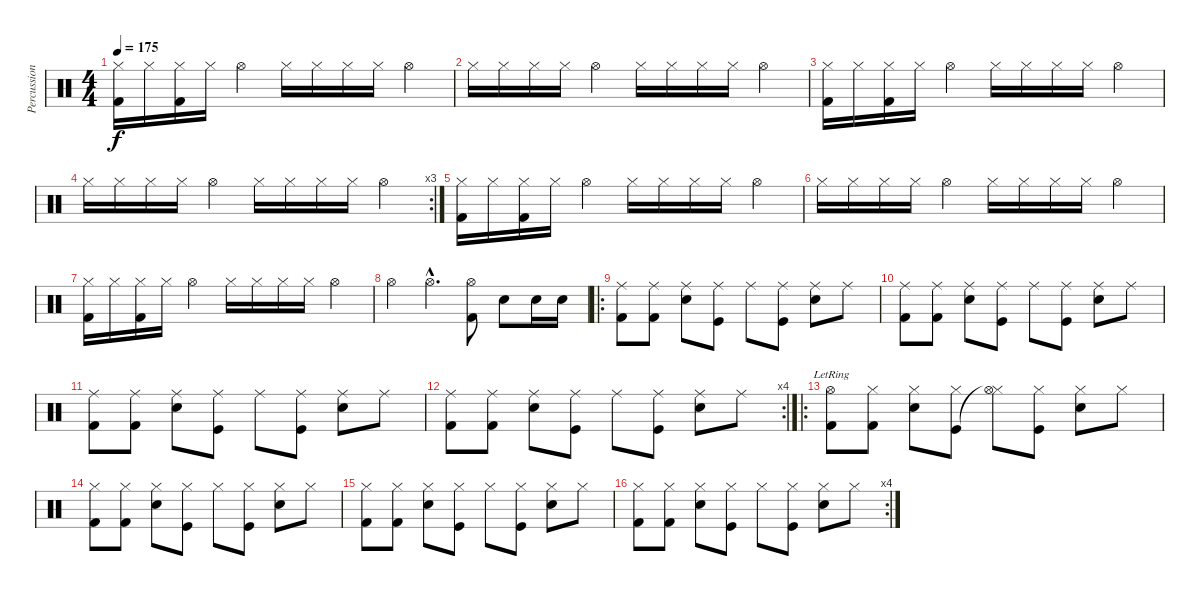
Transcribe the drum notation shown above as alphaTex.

\track ("Percussions" "Percussion") {instrument percussion}
\staff {score}
\articulation defaults
\ts (4 4)
\tempo 175
\clef neutral
\ks c
("Hi-Hat (closed)" "Kick (hit) 2").16{dy f} "Hi-Hat (closed)".16 ("Hi-Hat (closed)" "Kick (hit) 2").16 "Hi-Hat (closed)".16 "Hi-Hat (open)".4 "Hi-Hat (closed)".16 "Hi-Hat (closed)".16 "Hi-Hat (closed)".16 "Hi-Hat (closed)".16 "Hi-Hat (open)".4 |
"Hi-Hat (closed)".16 "Hi-Hat (closed)".16 "Hi-Hat (closed)".16 "Hi-Hat (closed)".16 "Hi-Hat (open)".4 "Hi-Hat (closed)".16 "Hi-Hat (closed)".16 "Hi-Hat (closed)".16 "Hi-Hat (closed)".16 "Hi-Hat (open)".4 |
("Hi-Hat (closed)" "Kick (hit) 2").16 "Hi-Hat (closed)".16 ("Hi-Hat (closed)" "Kick (hit) 2").16 "Hi-Hat (closed)".16 "Hi-Hat (open)".4 "Hi-Hat (closed)".16 "Hi-Hat (closed)".16 "Hi-Hat (closed)".16 "Hi-Hat (closed)".16 "Hi-Hat (open)".4 |
\rc 3 "Hi-Hat (closed)".16 "Hi-Hat (closed)".16 "Hi-Hat (closed)".16 "Hi-Hat (closed)".16 "Hi-Hat (open)".4 "Hi-Hat (closed)".16 "Hi-Hat (closed)".16 "Hi-Hat (closed)".16 "Hi-Hat (closed)".16 "Hi-Hat (open)".4
|
("Hi-Hat (closed)" "Kick (hit) 2").16 "Hi-Hat (closed)".16 ("Hi-Hat (closed)" "Kick (hit) 2").16 "Hi-Hat (closed)".16 "Hi-Hat (open)".4 "Hi-Hat (closed)".16 "Hi-Hat (closed)".16 "Hi-Hat (closed)".16 "Hi-Hat (closed)".16 "Hi-Hat (open)".4 |
"Hi-Hat (closed)".16 "Hi-Hat (closed)".16 "Hi-Hat (closed)".16 "Hi-Hat (closed)".16 "Hi-Hat (open)".4 "Hi-Hat (closed)".16 "Hi-Hat (closed)".16 "Hi-Hat (closed)".16 "Hi-Hat (closed)".16 "Hi-Hat (open)".4 |
("Hi-Hat (closed)" "Kick (hit) 2").16 "Hi-Hat (closed)".16 ("Hi-Hat (closed)" "Kick (hit) 2").16 "Hi-Hat (closed)".16 "Hi-Hat (open)".4 "Hi-Hat (closed)".16 "Hi-Hat (closed)".16 "Hi-Hat (closed)".16 "Hi-Hat (closed)".16 "Hi-Hat (open)".4 |
"Hi-Hat (open)".4 "Hi-Hat (open)"{hac}.4{d} ("Hi-Hat (open)" "Kick (hit) 2").8 "Snare (hit) 2".8 "Snare (hit) 2".16 "Snare (hit) 2".16 |
\ro
("Ride (middle)" "Kick (hit) 2").8 ("Ride (middle)" "Kick (hit) 2").8 ("Ride (middle)" "Snare (hit) 2").8 ("Ride (middle)" "Kick (hit)").8 "Ride (middle)".8 ("Ride (middle)" "Kick (hit)").8 ("Ride (middle)" "Snare (hit) 2").8 "Ride (middle)".8 |
("Ride (middle)" "Kick (hit) 2").8 ("Ride (middle)" "Kick (hit) 2").8 ("Ride (middle)" "Snare (hit) 2").8 ("Ride (middle)" "Kick (hit)").8 "Ride (middle)".8 ("Ride (middle)" "Kick (hit)").8 ("Ride (middle)" "Snare (hit) 2").8 "Ride (middle)".8 |
("Ride (middle)" "Kick (hit) 2").8 ("Ride (middle)" "Kick (hit) 2").8 ("Ride (middle)" "Snare (hit) 2").8 ("Ride (middle)" "Kick (hit)").8 "Ride (middle)".8 ("Ride (middle)" "Kick (hit)").8 ("Ride (middle)" "Snare (hit) 2").8 "Ride (middle)".8 |
\rc 4
("Ride (middle)" "Kick (hit) 2").8 ("Ride (middle)" "Kick (hit) 2").8 ("Ride (middle)" "Snare (hit) 2").8 ("Ride (middle)" "Kick (hit)").8 "Ride (middle)".8 ("Ride (middle)" "Kick (hit)").8 ("Ride (middle)" "Snare (hit) 2").8 "Ride (middle)".8 |
\ro
("Hi-Hat (open)"{lr} "Kick (hit) 2").8 ("Hi-Hat (closed)" "Kick (hit) 2").8 ("Hi-Hat (closed)" "Snare (hit) 2").8 ("Hi-Hat (closed)" "Kick (hit)").8 ("Hi-Hat (closed)" "Hi-Hat (open)"{t}).8 ("Hi-Hat (closed)" "Kick (hit)").8 ("Hi-Hat (closed)" "Snare (hit) 2").8 "Hi-Hat (closed)".8 |
("Hi-Hat (closed)" "Kick (hit) 2").8 ("Hi-Hat (closed)" "Kick (hit) 2").8 ("Hi-Hat (closed)" "Snare (hit) 2").8 ("Hi-Hat (closed)" "Kick (hit)").8 "Hi-Hat (closed)".8 ("Hi-Hat (closed)" "Kick (hit)").8 ("Hi-Hat (closed)" "Snare (hit) 2").8 "Hi-Hat (closed)".8 |
("Hi-Hat (closed)" "Kick (hit) 2").8 ("Hi-Hat (closed)" "Kick (hit) 2").8 ("Hi-Hat (closed)" "Snare (hit) 2").8 ("Hi-Hat (closed)" "Kick (hit)").8 "Hi-Hat (closed)".8 ("Hi-Hat (closed)" "Kick (hit)").8 ("Hi-Hat (closed)" "Snare (hit) 2").8 "Hi-Hat (closed)".8 |
\rc 4
("Hi-Hat (closed)" "Kick (hit) 2").8 ("Hi-Hat (closed)" "Kick (hit) 2").8 ("Hi-Hat (closed)" "Snare (hit) 2").8 ("Hi-Hat (closed)" "Kick (hit)").8 "Hi-Hat (closed)".8 ("Hi-Hat (closed)" "Kick (hit)").8 ("Hi-Hat (closed)" "Snare (hit) 2").8 "Hi-Hat (closed)".8
